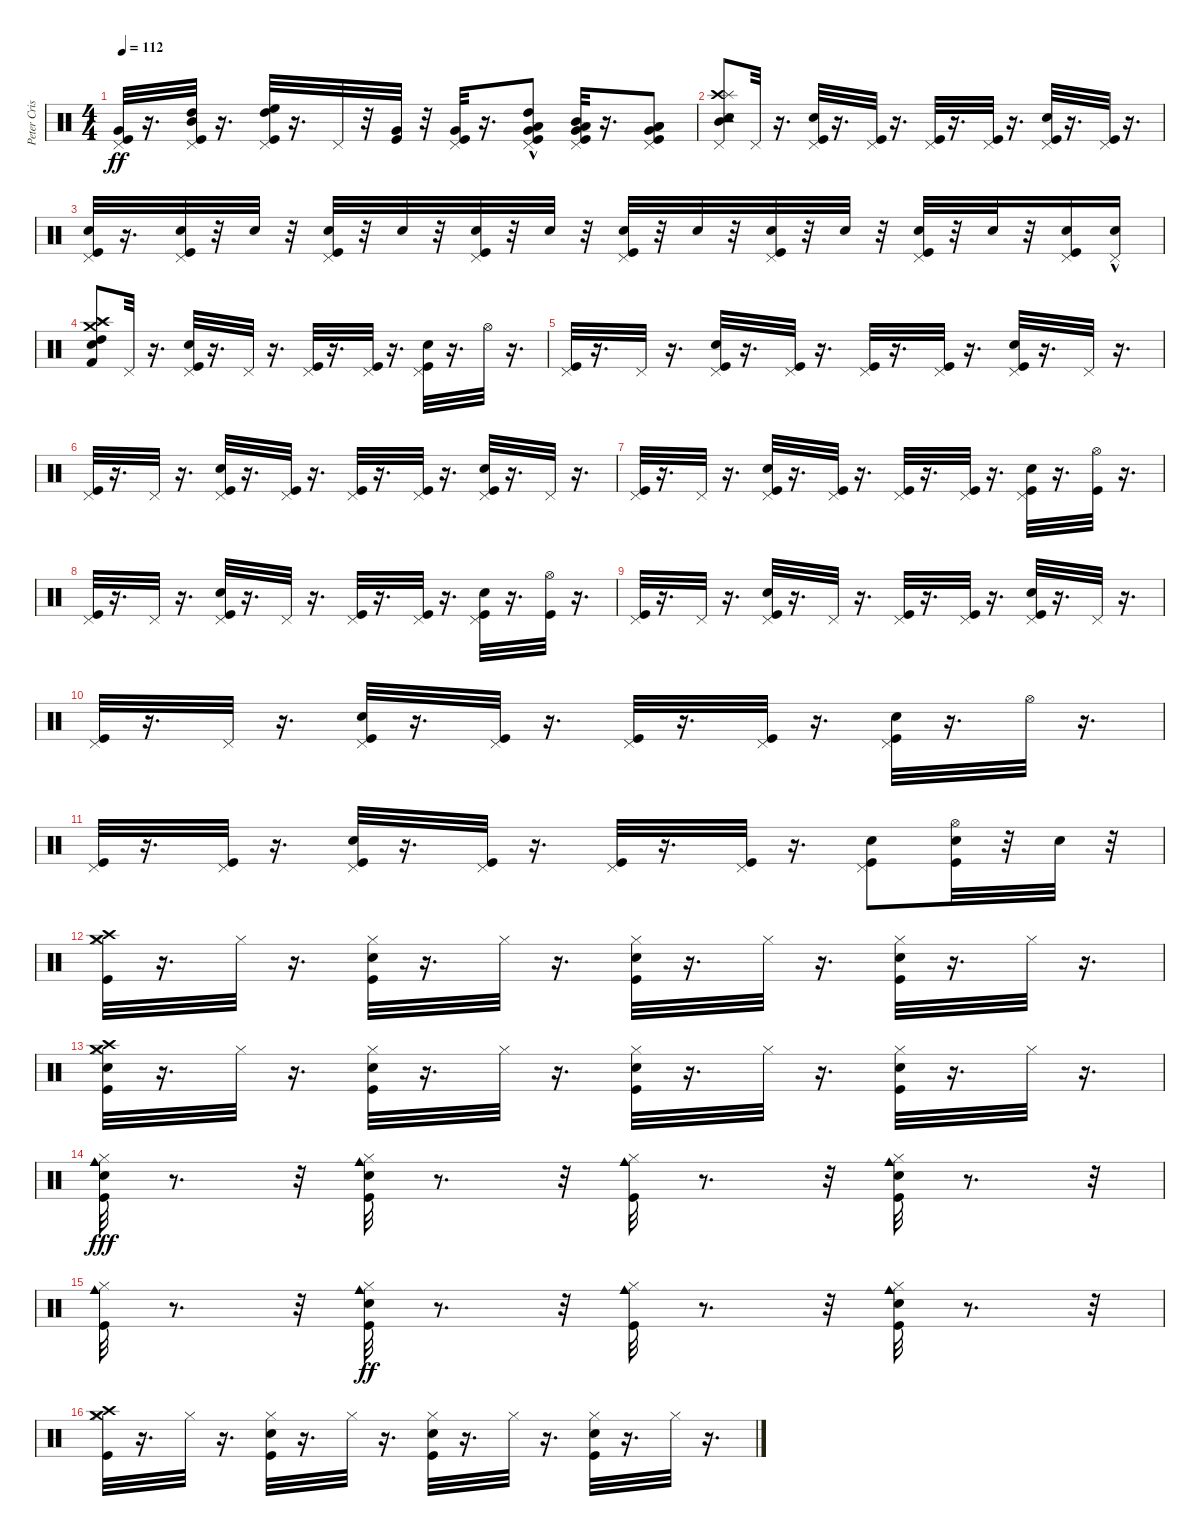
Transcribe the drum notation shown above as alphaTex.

\track ("Peter Criss" "Peter Cris") {instrument percussion}
\staff {score}
\articulation defaults
\ts (4 4)
\tempo 112
\clef neutral
\ks c
("Pedal Hi-Hat (hit)" "Very Low Tom (hit)" "Kick (hit)").32{dy ff} r.16{d} ("Pedal Hi-Hat (hit)" "Mid Tom (hit)" "Kick (hit)" "High Tom (hit)").32 r.16{d} ("Pedal Hi-Hat (hit)" "Kick (hit)" "High Floor Tom (hit)" "High Tom (hit)").32 r.16{d} "Pedal Hi-Hat (hit)".32 r.32 ("Very Low Tom (hit)" "Kick (hit)").32 r.32 ("Pedal Hi-Hat (hit)" "Kick (hit)" "Very Low Tom (hit)").32 r.16{d} ("Pedal Hi-Hat (hit)" "Low Floor Tom (hit)" "Very Low Tom (hit)" "Kick (hit)" "High Tom (hit)"{hac}).8 ("Pedal Hi-Hat (hit)" "Very Low Tom (hit)" "Mid Tom (hit)" "Kick (hit)" "Low Floor Tom (hit)").32 r.16{d} ("Pedal Hi-Hat (hit)" "Kick (hit)" "Low Tom (hit)" "Very Low Tom (hit)" "Low Floor Tom (hit)").8 |
("Mid Tom (hit)" "Crash high (hit)" "Splash (hit)" "Snare (hit) 2" "Tambourine (hit)" "Pedal Hi-Hat (hit)").8 "Pedal Hi-Hat (hit)".32 r.16{d} ("Kick (hit)" "Snare (hit) 2" "Pedal Hi-Hat (hit)").32 r.16{d} ("Pedal Hi-Hat (hit)" "Kick (hit)").32 r.16{d} ("Kick (hit)" "Pedal Hi-Hat (hit)").32 r.16{d} ("Pedal Hi-Hat (hit)" "Kick (hit)").32 r.16{d} ("Kick (hit)" "Snare (hit) 2" "Pedal Hi-Hat (hit)").32 r.16{d} ("Kick (hit)" "Pedal Hi-Hat (hit)").32 r.16{d} |
("Pedal Hi-Hat (hit)" "Kick (hit)" "Electric Snare (hit)").32 r.16{d} ("Pedal Hi-Hat (hit)" "Kick (hit)" "Electric Snare (hit)").32 r.32 "Electric Snare (hit)".32 r.32 ("Pedal Hi-Hat (hit)" "Kick (hit)" "Electric Snare (hit)").32 r.32 "Electric Snare (hit)".32 r.32 ("Pedal Hi-Hat (hit)" "Kick (hit)" "Electric Snare (hit)").32 r.32 "Electric Snare (hit)".32 r.32 ("Kick (hit)" "Pedal Hi-Hat (hit)" "Electric Snare (hit)").32 r.32 "Electric Snare (hit)".32 r.32 ("Pedal Hi-Hat (hit)" "Kick (hit)" "Electric Snare (hit)").32 r.32 "Electric Snare (hit)".32 r.32 ("Pedal Hi-Hat (hit)" "Kick (hit)" "Electric Snare (hit)").32 r.32 "Electric Snare (hit)".32 r.32 ("Pedal Hi-Hat (hit)" "Kick (hit)" "Electric Snare (hit)").16 ("Pedal Hi-Hat (hit)"{hac} "Electric Snare (hit)").16 |
("Snare (hit) 2" "Splash (hit)" "High Tom (hit)" "Crash high (hit)" "Crash medium (hit)" "Kick (hit) 2").8 "Pedal Hi-Hat (hit)".32 r.16{d} ("Snare (hit) 2" "Pedal Hi-Hat (hit)" "Kick (hit)").32 r.16{d} "Pedal Hi-Hat (hit)".32 r.16{d} ("Kick (hit)" "Pedal Hi-Hat (hit)").32 r.16{d} ("Pedal Hi-Hat (hit)" "Kick (hit)").32 r.16{d} ("Pedal Hi-Hat (hit)" "Kick (hit)" "Snare (hit) 2").32 r.16{d} "Hi-Hat (open)".32 r.16{d} |
("Pedal Hi-Hat (hit)" "Kick (hit)").32 r.16{d} "Pedal Hi-Hat (hit)".32 r.16{d} ("Kick (hit)" "Snare (hit) 2" "Pedal Hi-Hat (hit)").32 r.16{d} ("Kick (hit)" "Pedal Hi-Hat (hit)").32 r.16{d} ("Pedal Hi-Hat (hit)" "Kick (hit)").32 r.16{d} ("Kick (hit)" "Pedal Hi-Hat (hit)").32 r.16{d} ("Pedal Hi-Hat (hit)" "Snare (hit) 2" "Kick (hit)").32 r.16{d} "Pedal Hi-Hat (hit)".32 r.16{d} |
("Kick (hit)" "Pedal Hi-Hat (hit)").32 r.16{d} "Pedal Hi-Hat (hit)".32 r.16{d} ("Snare (hit) 2" "Pedal Hi-Hat (hit)" "Kick (hit)").32 r.16{d} ("Kick (hit)" "Pedal Hi-Hat (hit)").32 r.16{d} ("Pedal Hi-Hat (hit)" "Kick (hit)").32 r.16{d} ("Pedal Hi-Hat (hit)" "Kick (hit)").32 r.16{d} ("Snare (hit) 2" "Kick (hit)" "Pedal Hi-Hat (hit)").32 r.16{d} "Pedal Hi-Hat (hit)".32 r.16{d} |
("Pedal Hi-Hat (hit)" "Kick (hit)").32 r.16{d} "Pedal Hi-Hat (hit)".32 r.16{d} ("Pedal Hi-Hat (hit)" "Snare (hit) 2" "Kick (hit)").32 r.16{d} ("Kick (hit)" "Pedal Hi-Hat (hit)").32 r.16{d} ("Pedal Hi-Hat (hit)" "Kick (hit)").32 r.16{d} ("Kick (hit)" "Pedal Hi-Hat (hit)").32 r.16{d} ("Kick (hit)" "Snare (hit) 2" "Pedal Hi-Hat (hit)").32 r.16{d} ("Kick (hit)" "Hi-Hat (open)").32 r.16{d} |
("Kick (hit)" "Pedal Hi-Hat (hit)").32 r.16{d} "Pedal Hi-Hat (hit)".32 r.16{d} ("Pedal Hi-Hat (hit)" "Snare (hit) 2" "Kick (hit)").32 r.16{d} "Pedal Hi-Hat (hit)".32 r.16{d} ("Pedal Hi-Hat (hit)" "Kick (hit)").32 r.16{d} ("Kick (hit)" "Pedal Hi-Hat (hit)").32 r.16{d} ("Kick (hit)" "Pedal Hi-Hat (hit)" "Snare (hit) 2").32 r.16{d} ("Kick (hit)" "Hi-Hat (open)").32 r.16{d} |
("Pedal Hi-Hat (hit)" "Kick (hit)").32 r.16{d} "Pedal Hi-Hat (hit)".32 r.16{d} ("Snare (hit) 2" "Kick (hit)" "Pedal Hi-Hat (hit)").32 r.16{d} "Pedal Hi-Hat (hit)".32 r.16{d} ("Pedal Hi-Hat (hit)" "Kick (hit)").32 r.16{d} ("Pedal Hi-Hat (hit)" "Kick (hit)").32 r.16{d} ("Snare (hit) 2" "Pedal Hi-Hat (hit)" "Kick (hit)").32 r.16{d} "Pedal Hi-Hat (hit)".32 r.16{d} |
("Pedal Hi-Hat (hit)" "Kick (hit)").32 r.16{d} "Pedal Hi-Hat (hit)".32 r.16{d} ("Snare (hit) 2" "Kick (hit)" "Pedal Hi-Hat (hit)").32 r.16{d} ("Kick (hit)" "Pedal Hi-Hat (hit)").32 r.16{d} ("Pedal Hi-Hat (hit)" "Kick (hit)").32 r.16{d} ("Kick (hit)" "Pedal Hi-Hat (hit)").32 r.16{d} ("Pedal Hi-Hat (hit)" "Kick (hit)" "Snare (hit) 2").32 r.16{d} "Hi-Hat (open)".32 r.16{d} |
("Kick (hit)" "Pedal Hi-Hat (hit)").32 r.16{d} ("Kick (hit)" "Pedal Hi-Hat (hit)").32 r.16{d} ("Snare (hit) 2" "Pedal Hi-Hat (hit)" "Kick (hit)").32 r.16{d} ("Kick (hit)" "Pedal Hi-Hat (hit)").32 r.16{d} ("Kick (hit)" "Pedal Hi-Hat (hit)").32 r.16{d} ("Pedal Hi-Hat (hit)" "Kick (hit)").32 r.16{d} ("Kick (hit)" "Pedal Hi-Hat (hit)" "Snare (hit) 2").8 ("Hi-Hat (open)" "Snare (hit) 2" "Kick (hit)").32 r.32 "Snare (hit) 2".32 r.32 |
("Crash medium (hit)" "Kick (hit)" "Crash high (hit)" "Hi-Hat (closed)").32 r.16{d} "Hi-Hat (closed)".32 r.16{d} ("Hi-Hat (closed)" "Kick (hit)" "Snare (hit) 2").32 r.16{d} "Hi-Hat (closed)".32 r.16{d} ("Kick (hit)" "Snare (hit) 2" "Hi-Hat (closed)").32 r.16{d} "Hi-Hat (closed)".32 r.16{d} ("Snare (hit) 2" "Kick (hit)" "Hi-Hat (closed)").32 r.16{d} "Hi-Hat (closed)".32 r.16{d} |
("Crash high (hit)" "Kick (hit)" "Snare (hit) 2" "Crash medium (hit)" "Hi-Hat (closed)").32 r.16{d} "Hi-Hat (closed)".32 r.16{d} ("Hi-Hat (closed)" "Kick (hit)" "Snare (hit) 2").32 r.16{d} "Hi-Hat (closed)".32 r.16{d} ("Snare (hit) 2" "Hi-Hat (closed)" "Kick (hit)").32 r.16{d} "Hi-Hat (closed)".32 r.16{d} ("Snare (hit) 2" "Hi-Hat (closed)" "Kick (hit)").32 r.16{d} "Hi-Hat (closed)".32 r.16{d} |
("Kick (hit)" "Snare (hit) 2" "Cowbell medium (hit)" "Hi-Hat (closed)").32{dy fff} r.8{d} r.32 ("Hi-Hat (closed)" "Kick (hit)" "Snare (hit) 2" "Cowbell medium (hit)").32 r.8{d} r.32 ("Kick (hit)" "Cowbell medium (hit)" "Hi-Hat (closed)").32 r.8{d} r.32 ("Kick (hit)" "Cowbell medium (hit)" "Snare (hit) 2" "Hi-Hat (closed)").32 r.8{d} r.32 |
("Kick (hit)" "Cowbell medium (hit)" "Hi-Hat (closed)").32 r.8{d} r.32 ("Cowbell medium (hit)" "Hi-Hat (closed)" "Kick (hit)" "Snare (hit) 2").32{dy ff} r.8{d} r.32 ("Cowbell medium (hit)" "Hi-Hat (closed)" "Kick (hit)").32 r.8{d} r.32 ("Kick (hit)" "Cowbell medium (hit)" "Snare (hit) 2" "Hi-Hat (closed)").32 r.8{d} r.32 |
("Hi-Hat (closed)" "Crash high (hit)" "Kick (hit)" "Crash medium (hit)").32 r.16{d} "Hi-Hat (closed)".32 r.16{d} ("Snare (hit) 2" "Kick (hit)" "Hi-Hat (closed)").32 r.16{d} "Hi-Hat (closed)".32 r.16{d} ("Kick (hit)" "Hi-Hat (closed)" "Snare (hit) 2").32 r.16{d} "Hi-Hat (closed)".32 r.16{d} ("Hi-Hat (closed)" "Snare (hit) 2" "Kick (hit)").32 r.16{d} "Hi-Hat (closed)".32 r.16{d}
